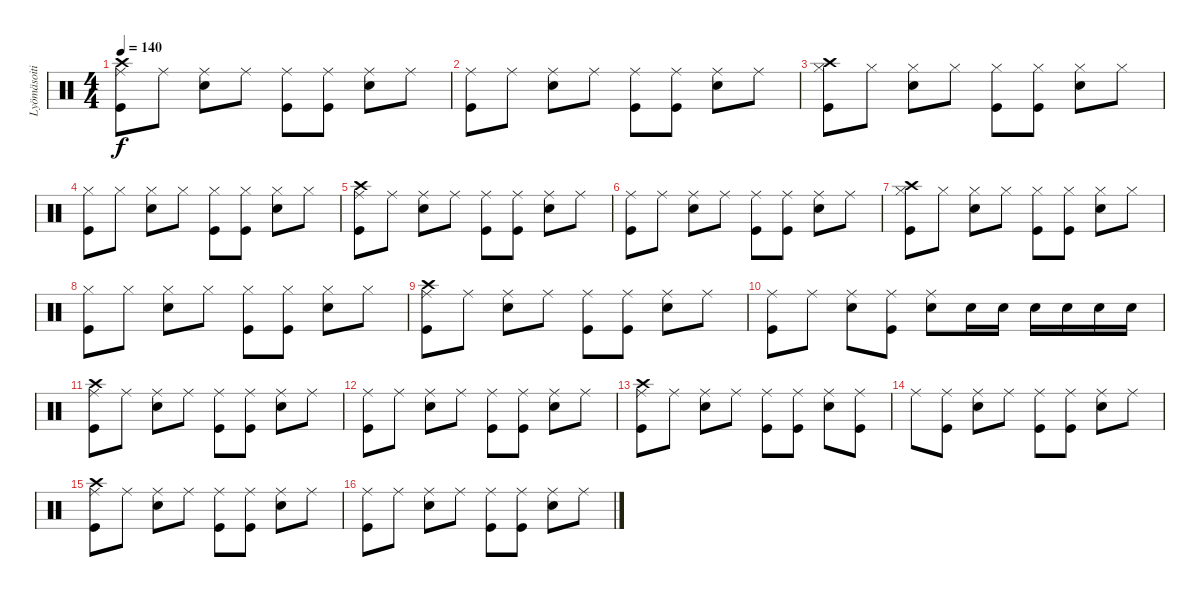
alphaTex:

\track ("Lyömäsoitin" "Lyömäsoiti") {instrument percussion}
\staff {score}
\articulation defaults
\ts (4 4)
\tempo 140
\clef neutral
\ks c
("Crash high (hit)" "Ride (middle)" "Kick (hit)").8{dy f} "Ride (middle)".8 ("Ride (middle)" "Snare (hit) 2").8 "Ride (middle)".8 ("Ride (middle)" "Kick (hit)").8 ("Ride (middle)" "Kick (hit)").8 ("Ride (middle)" "Snare (hit) 2").8 "Ride (middle)".8 |
("Ride (middle)" "Kick (hit)").8 "Ride (middle)".8 ("Ride (middle)" "Snare (hit) 2").8 "Ride (middle)".8 ("Ride (middle)" "Kick (hit)").8 ("Ride (middle)" "Kick (hit)").8 ("Ride (middle)" "Snare (hit) 2").8 "Ride (middle)".8 |
("Crash high (hit)" "Hi-Hat (closed)" "Kick (hit)").8 "Hi-Hat (closed)".8 ("Hi-Hat (closed)" "Snare (hit) 2").8 "Hi-Hat (closed)".8 ("Hi-Hat (closed)" "Kick (hit)").8 ("Hi-Hat (closed)" "Kick (hit)").8 ("Hi-Hat (closed)" "Snare (hit) 2").8 "Hi-Hat (closed)".8 |
("Hi-Hat (closed)" "Kick (hit)").8 "Hi-Hat (closed)".8 ("Hi-Hat (closed)" "Snare (hit) 2").8 "Hi-Hat (closed)".8 ("Hi-Hat (closed)" "Kick (hit)").8 ("Hi-Hat (closed)" "Kick (hit)").8 ("Hi-Hat (closed)" "Snare (hit) 2").8 "Hi-Hat (closed)".8 |
("Crash high (hit)" "Ride (middle)" "Kick (hit)").8 "Ride (middle)".8 ("Ride (middle)" "Snare (hit) 2").8 "Ride (middle)".8 ("Ride (middle)" "Kick (hit)").8 ("Ride (middle)" "Kick (hit)").8 ("Ride (middle)" "Snare (hit) 2").8 "Ride (middle)".8 |
("Ride (middle)" "Kick (hit)").8 "Ride (middle)".8 ("Ride (middle)" "Snare (hit) 2").8 "Ride (middle)".8 ("Ride (middle)" "Kick (hit)").8 ("Ride (middle)" "Kick (hit)").8 ("Ride (middle)" "Snare (hit) 2").8 "Ride (middle)".8 |
("Crash high (hit)" "Hi-Hat (closed)" "Kick (hit)").8 "Hi-Hat (closed)".8 ("Hi-Hat (closed)" "Snare (hit) 2").8 "Hi-Hat (closed)".8 ("Hi-Hat (closed)" "Kick (hit)").8 ("Hi-Hat (closed)" "Kick (hit)").8 ("Hi-Hat (closed)" "Snare (hit) 2").8 "Hi-Hat (closed)".8 |
("Hi-Hat (closed)" "Kick (hit)").8 "Hi-Hat (closed)".8 ("Hi-Hat (closed)" "Snare (hit) 2").8 "Hi-Hat (closed)".8 ("Hi-Hat (closed)" "Kick (hit)").8 ("Hi-Hat (closed)" "Kick (hit)").8 ("Hi-Hat (closed)" "Snare (hit) 2").8 "Hi-Hat (closed)".8 |
("Crash high (hit)" "Ride (middle)" "Kick (hit)").8 "Ride (middle)".8 ("Ride (middle)" "Snare (hit) 2").8 "Ride (middle)".8 ("Ride (middle)" "Kick (hit)").8 ("Ride (middle)" "Kick (hit)").8 ("Ride (middle)" "Snare (hit) 2").8 "Ride (middle)".8 |
("Ride (middle)" "Kick (hit)").8 "Ride (middle)".8 ("Ride (middle)" "Snare (hit) 2").8 ("Ride (middle)" "Kick (hit)").8 ("Ride (middle)" "Snare (hit) 2").8 "Snare (hit) 2".16 "Snare (hit) 2".16 "Snare (hit) 2".16 "Snare (hit) 2".16 "Snare (hit) 2".16 "Snare (hit) 2".16 |
("Crash high (hit)" "Ride (middle)" "Kick (hit)").8 "Ride (middle)".8 ("Ride (middle)" "Snare (hit) 2").8 "Ride (middle)".8 ("Ride (middle)" "Kick (hit)").8 ("Ride (middle)" "Kick (hit)").8 ("Ride (middle)" "Snare (hit) 2").8 "Ride (middle)".8 |
("Ride (middle)" "Kick (hit)").8 "Ride (middle)".8 ("Ride (middle)" "Snare (hit) 2").8 "Ride (middle)".8 ("Ride (middle)" "Kick (hit)").8 ("Ride (middle)" "Kick (hit)").8 ("Ride (middle)" "Snare (hit) 2").8 "Ride (middle)".8 |
("Crash high (hit)" "Ride (middle)" "Kick (hit)").8 "Ride (middle)".8 ("Ride (middle)" "Snare (hit) 2").8 "Ride (middle)".8 ("Ride (middle)" "Kick (hit)").8 ("Ride (middle)" "Kick (hit)").8 ("Ride (middle)" "Snare (hit) 2").8 ("Ride (middle)" "Kick (hit)").8 |
"Ride (middle)".8 ("Ride (middle)" "Kick (hit)").8 ("Ride (middle)" "Snare (hit) 2").8 "Ride (middle)".8 ("Ride (middle)" "Kick (hit)").8 ("Ride (middle)" "Kick (hit)").8 ("Ride (middle)" "Snare (hit) 2").8 "Ride (middle)".8 |
("Crash high (hit)" "Ride (middle)" "Kick (hit)").8 "Ride (middle)".8 ("Ride (middle)" "Snare (hit) 2").8 "Ride (middle)".8 ("Ride (middle)" "Kick (hit)").8 ("Ride (middle)" "Kick (hit)").8 ("Ride (middle)" "Snare (hit) 2").8 "Ride (middle)".8 |
("Ride (middle)" "Kick (hit)").8 "Ride (middle)".8 ("Ride (middle)" "Snare (hit) 2").8 "Ride (middle)".8 ("Ride (middle)" "Kick (hit)").8 ("Ride (middle)" "Kick (hit)").8 ("Ride (middle)" "Snare (hit) 2").8 "Ride (middle)".8
